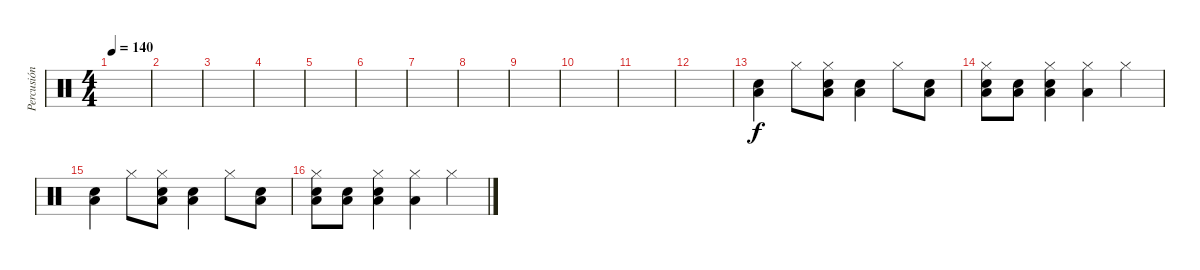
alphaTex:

\track ("Percusión" "Percusión") {instrument percussion}
\staff {score}
\articulation defaults
\ts (4 4)
\tempo 140
\clef neutral
\ks c
|
|
|
|
|
|
|
|
|
|
|
|
("Low Tom (hit)" "Snare (hit) 2").4 "Hi-Hat (closed)".8 ("Hi-Hat (closed)" "Snare (hit) 2" "Low Tom (hit)").8 ("Low Tom (hit)" "Snare (hit) 2").4 "Hi-Hat (closed)".8 ("Snare (hit) 2" "Low Tom (hit)").8 |
("Hi-Hat (closed)" "Snare (hit) 2" "Low Tom (hit)").8 ("Snare (hit) 2" "Low Tom (hit)").8 ("Snare (hit) 2" "Low Tom (hit)" "Hi-Hat (closed)").4 ("Low Tom (hit)" "Hi-Hat (closed)").4 "Hi-Hat (closed)".4 |
("Low Tom (hit)" "Snare (hit) 2").4 "Hi-Hat (closed)".8 ("Hi-Hat (closed)" "Snare (hit) 2" "Low Tom (hit)").8 ("Low Tom (hit)" "Snare (hit) 2").4 "Hi-Hat (closed)".8 ("Snare (hit) 2" "Low Tom (hit)").8 |
("Hi-Hat (closed)" "Snare (hit) 2" "Low Tom (hit)").8 ("Snare (hit) 2" "Low Tom (hit)").8 ("Snare (hit) 2" "Low Tom (hit)" "Hi-Hat (closed)").4 ("Low Tom (hit)" "Hi-Hat (closed)").4 "Hi-Hat (closed)".4
